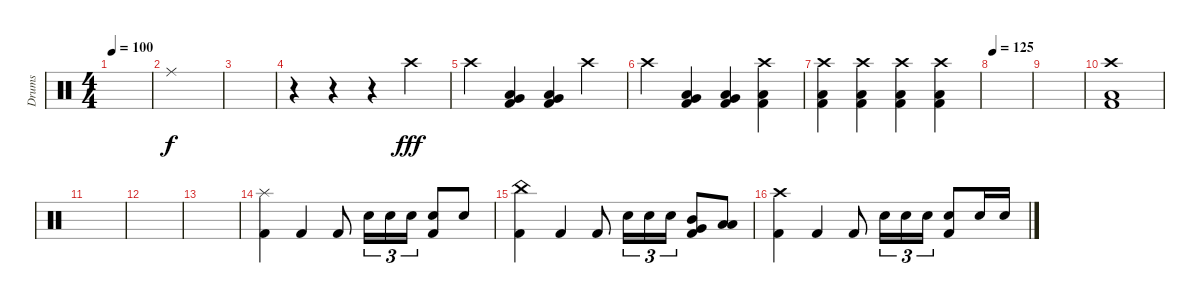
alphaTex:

\track ("Drums" "Drums") {instrument percussion}
\staff {score}
\articulation defaults
\ts (4 4)
\tempo 100
\clef neutral
\ks c
|
"Ride (middle)".1 |
|
r.4 r.4 r.4 "Crash high (hit)".4{dy fff} |
"Crash high (hit)".4 ("Kick (hit) 2" "Very Low Tom (hit)" "Low Floor Tom (hit)").4 ("Kick (hit) 2" "Very Low Tom (hit)" "Low Floor Tom (hit)").4 "Crash high (hit)".4 |
"Crash high (hit)".4 ("Kick (hit) 2" "Very Low Tom (hit)" "Low Floor Tom (hit)").4 ("Kick (hit) 2" "Very Low Tom (hit)" "Low Floor Tom (hit)").4 ("Kick (hit) 2" "Crash high (hit)" "Low Floor Tom (hit)").4 |
("Kick (hit) 2" "Crash high (hit)" "Low Floor Tom (hit)").4 ("Kick (hit) 2" "Crash high (hit)" "Low Floor Tom (hit)").4 ("Kick (hit) 2" "Crash high (hit)" "Low Floor Tom (hit)").4 ("Kick (hit) 2" "Crash high (hit)" "Low Floor Tom (hit)").4 |
\tempo 125
|
|
("Kick (hit) 2" "Crash high (hit)" "Low Floor Tom (hit)").1 |
|
|
|
("Kick (hit) 2" "Splash (hit)").4 "Kick (hit) 2".4 "Kick (hit) 2".8 "Snare (hit) 2".16{tu (3 2)} "Snare (hit) 2".16{tu (3 2)} "Snare (hit) 2".16{tu (3 2)} ("Kick (hit) 2" "Snare (hit) 2").8 "Snare (hit) 2".8 |
("Kick (hit) 2" "China (hit)").4 "Kick (hit) 2".4 "Kick (hit) 2".8 "Snare (hit) 2".16{tu (3 2)} "Snare (hit) 2".16{tu (3 2)} "Snare (hit) 2".16{tu (3 2)} ("Kick (hit) 2" "Mid Tom (hit)" "Very Low Tom (hit)").8 ("Low Tom (hit)" "Low Floor Tom (hit)").8 |
("Kick (hit) 2" "Crash high (hit)").4 "Kick (hit) 2".4 "Kick (hit) 2".8 "Snare (hit) 2".16{tu (3 2)} "Snare (hit) 2".16{tu (3 2)} "Snare (hit) 2".16{tu (3 2)} ("Kick (hit) 2" "Snare (hit) 2").8 "Snare (hit) 2".16 "Snare (hit) 2".16
